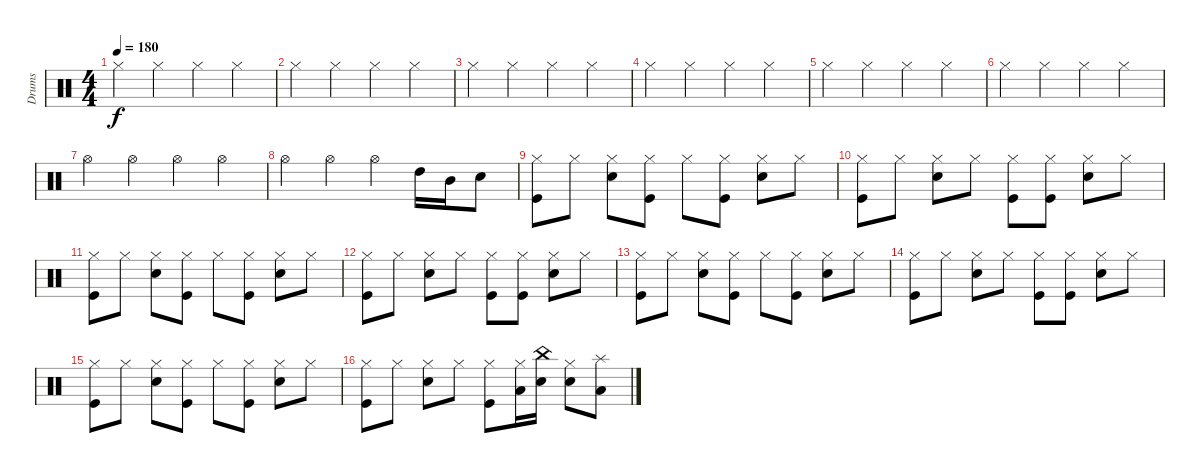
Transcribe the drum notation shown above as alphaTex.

\track ("Drums" "Drums") {instrument percussion}
\staff {score}
\articulation defaults
\ts (4 4)
\tempo 180
\clef neutral
\ks c "Hi-Hat (closed)".4{dy f} "Hi-Hat (closed)".4 "Hi-Hat (closed)".4 "Hi-Hat (closed)".4
|
"Hi-Hat (closed)".4 "Hi-Hat (closed)".4 "Hi-Hat (closed)".4 "Hi-Hat (closed)".4 |
"Hi-Hat (closed)".4 "Hi-Hat (closed)".4 "Hi-Hat (closed)".4 "Hi-Hat (closed)".4 |
"Hi-Hat (closed)".4 "Hi-Hat (closed)".4 "Hi-Hat (closed)".4 "Hi-Hat (closed)".4 |
"Hi-Hat (closed)".4 "Hi-Hat (closed)".4 "Hi-Hat (closed)".4 "Hi-Hat (closed)".4 |
"Hi-Hat (closed)".4 "Hi-Hat (closed)".4 "Hi-Hat (closed)".4 "Hi-Hat (closed)".4 |
"Hi-Hat (open)".4 "Hi-Hat (open)".4 "Hi-Hat (open)".4 "Hi-Hat (open)".4 |
"Hi-Hat (open)".4 "Hi-Hat (open)".4 "Hi-Hat (open)".4 "High Tom (hit)".16 "Mid Tom (hit)".16 "Snare (hit) 2".8 |
("Hi-Hat (closed)" "Kick (hit)").8 "Hi-Hat (closed)".8 ("Hi-Hat (closed)" "Snare (hit) 2").8 ("Hi-Hat (closed)" "Kick (hit)").8 "Hi-Hat (closed)".8 ("Hi-Hat (closed)" "Kick (hit)").8 ("Hi-Hat (closed)" "Snare (hit) 2").8 "Hi-Hat (closed)".8 |
("Hi-Hat (closed)" "Kick (hit)").8 "Hi-Hat (closed)".8 ("Hi-Hat (closed)" "Snare (hit) 2").8 "Hi-Hat (closed)".8 ("Hi-Hat (closed)" "Kick (hit)").8 ("Hi-Hat (closed)" "Kick (hit)").8 ("Hi-Hat (closed)" "Snare (hit) 2").8 "Hi-Hat (closed)".8 |
("Hi-Hat (closed)" "Kick (hit)").8 "Hi-Hat (closed)".8 ("Hi-Hat (closed)" "Snare (hit) 2").8 ("Hi-Hat (closed)" "Kick (hit)").8 "Hi-Hat (closed)".8 ("Hi-Hat (closed)" "Kick (hit)").8 ("Hi-Hat (closed)" "Snare (hit) 2").8 "Hi-Hat (closed)".8 |
("Hi-Hat (closed)" "Kick (hit)").8 "Hi-Hat (closed)".8 ("Hi-Hat (closed)" "Snare (hit) 2").8 "Hi-Hat (closed)".8 ("Hi-Hat (closed)" "Kick (hit)").8 ("Hi-Hat (closed)" "Kick (hit)").8 ("Hi-Hat (closed)" "Snare (hit) 2").8 "Hi-Hat (closed)".8 |
("Hi-Hat (closed)" "Kick (hit)").8 "Hi-Hat (closed)".8 ("Hi-Hat (closed)" "Snare (hit) 2").8 ("Hi-Hat (closed)" "Kick (hit)").8 "Hi-Hat (closed)".8 ("Hi-Hat (closed)" "Kick (hit)").8 ("Hi-Hat (closed)" "Snare (hit) 2").8 "Hi-Hat (closed)".8 |
("Hi-Hat (closed)" "Kick (hit)").8 "Hi-Hat (closed)".8 ("Hi-Hat (closed)" "Snare (hit) 2").8 "Hi-Hat (closed)".8 ("Hi-Hat (closed)" "Kick (hit)").8 ("Hi-Hat (closed)" "Kick (hit)").8 ("Hi-Hat (closed)" "Snare (hit) 2").8 "Hi-Hat (closed)".8 |
("Hi-Hat (closed)" "Kick (hit)").8 "Hi-Hat (closed)".8 ("Hi-Hat (closed)" "Snare (hit) 2").8 ("Hi-Hat (closed)" "Kick (hit)").8 "Hi-Hat (closed)".8 ("Hi-Hat (closed)" "Kick (hit)").8 ("Hi-Hat (closed)" "Snare (hit) 2").8 "Hi-Hat (closed)".8 |
("Hi-Hat (closed)" "Kick (hit)").8 "Hi-Hat (closed)".8 ("Hi-Hat (closed)" "Snare (hit) 2").8 "Hi-Hat (closed)".8 ("Hi-Hat (closed)" "Kick (hit)").8 ("Hi-Hat (closed)" "Low Tom (hit)").16 ("China (hit)" "Snare (hit) 2").16 ("Hi-Hat (closed)" "Electric Snare (hit)").8 ("Splash (hit)" "Low Tom (hit)").8
